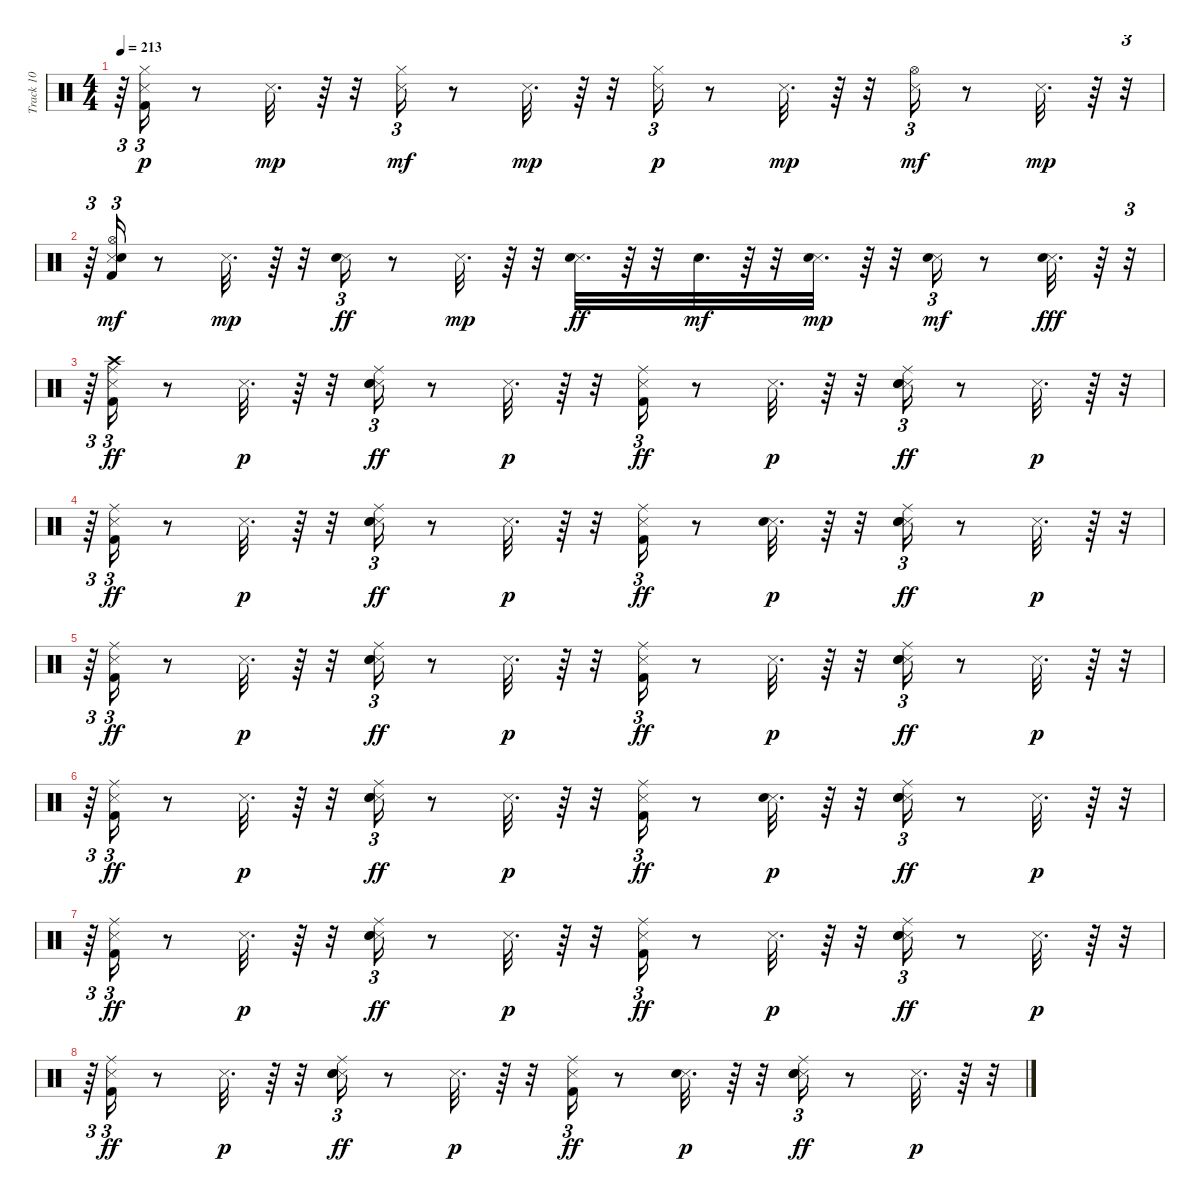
\track ("Track 10" "Track 10") {instrument percussion}
\staff {score}
\articulation defaults
\ts (4 4)
\tempo 213
\clef neutral
\ks c
r.64{tu (3 2) dy mp} ("Kick (hit) 2" "Snare (side stick) 3" "Hi-Hat (closed)").16{tu (3 2) dy p} r.8 "Snare (side stick) 3".32{d dy mp} r.64 r.32 ("Snare (side stick) 3" "Hi-Hat (closed)").16{tu (3 2) dy mf} r.8 "Snare (side stick) 3".32{d dy mp} r.64 r.32 ("Snare (side stick) 3" "Hi-Hat (closed)").16{tu (3 2) dy p} r.8 "Snare (side stick) 3".32{d dy mp} r.64 r.32 ("Snare (side stick) 3" "Hi-Hat (open)").16{tu (3 2) dy mf} r.8 "Snare (side stick) 3".32{d dy mp} r.64 r.32{tu (3 2)} |
r.64{tu (3 2)} ("Kick (hit) 2" "Snare (side stick) 3" "Electric Snare (hit)" "Hi-Hat (open)").16{tu (3 2) dy mf} r.8 "Snare (side stick) 3".32{d dy mp} r.64 r.32 ("Snare (side stick) 3" "Electric Snare (hit)").16{tu (3 2) dy ff} r.8 "Snare (side stick) 3".32{d dy mp} r.64 r.32 ("Snare (side stick) 3" "Electric Snare (hit)").32{d dy ff} r.64 r.32 "Electric Snare (hit)".32{d dy mf} r.64 r.32 ("Snare (side stick) 3" "Electric Snare (hit)").32{d dy mp} r.64 r.32 ("Snare (side stick) 3" "Electric Snare (hit)").16{tu (3 2) dy mf} r.8 ("Snare (side stick) 3" "Electric Snare (hit)").32{d dy fff} r.64 r.32{tu (3 2)} |
r.64{tu (3 2)} ("Kick (hit) 2" "Snare (side stick) 3" "Crash high (hit)" "Ride (middle)").16{tu (3 2) dy ff} r.8 "Snare (side stick) 3".32{d dy p} r.64 r.32 ("Snare (side stick) 3" "Hand Clap (hit)" "Electric Snare (hit)" "Ride (middle)").16{tu (3 2) dy ff} r.8 "Snare (side stick) 3".32{d dy p} r.64 r.32 ("Kick (hit) 2" "Snare (side stick) 3" "Ride (middle)").16{tu (3 2) dy ff} r.8 "Snare (side stick) 3".32{d dy p} r.64 r.32 ("Snare (side stick) 3" "Hand Clap (hit)" "Electric Snare (hit)" "Ride (middle)").16{tu (3 2) dy ff} r.8 "Snare (side stick) 3".32{d dy p} r.64 r.32{tu (3 2)} |
r.64{tu (3 2)} ("Kick (hit) 2" "Snare (side stick) 3" "Ride (middle)").16{tu (3 2) dy ff} r.8 "Snare (side stick) 3".32{d dy p} r.64 r.32 ("Snare (side stick) 3" "Hand Clap (hit)" "Electric Snare (hit)" "Ride (middle)").16{tu (3 2) dy ff} r.8 "Snare (side stick) 3".32{d dy p} r.64 r.32 ("Kick (hit) 2" "Snare (side stick) 3" "Ride (middle)").16{tu (3 2) dy ff} r.8 ("Snare (side stick) 3" "Electric Snare (hit)").32{d dy p} r.64 r.32 ("Snare (side stick) 3" "Hand Clap (hit)" "Electric Snare (hit)" "Ride (middle)").16{tu (3 2) dy ff} r.8 "Snare (side stick) 3".32{d dy p} r.64 r.32{tu (3 2)} |
r.64{tu (3 2)} ("Kick (hit) 2" "Snare (side stick) 3" "Ride (middle)").16{tu (3 2) dy ff} r.8 "Snare (side stick) 3".32{d dy p} r.64 r.32 ("Snare (side stick) 3" "Hand Clap (hit)" "Electric Snare (hit)" "Ride (middle)").16{tu (3 2) dy ff} r.8 "Snare (side stick) 3".32{d dy p} r.64 r.32 ("Kick (hit) 2" "Snare (side stick) 3" "Ride (middle)").16{tu (3 2) dy ff} r.8 "Snare (side stick) 3".32{d dy p} r.64 r.32 ("Snare (side stick) 3" "Hand Clap (hit)" "Electric Snare (hit)" "Ride (middle)").16{tu (3 2) dy ff} r.8 "Snare (side stick) 3".32{d dy p} r.64 r.32{tu (3 2)} |
r.64{tu (3 2)} ("Kick (hit) 2" "Snare (side stick) 3" "Ride (middle)").16{tu (3 2) dy ff} r.8 "Snare (side stick) 3".32{d dy p} r.64 r.32 ("Snare (side stick) 3" "Hand Clap (hit)" "Electric Snare (hit)" "Ride (middle)").16{tu (3 2) dy ff} r.8 "Snare (side stick) 3".32{d dy p} r.64 r.32 ("Kick (hit) 2" "Snare (side stick) 3" "Ride (middle)").16{tu (3 2) dy ff} r.8 ("Snare (side stick) 3" "Electric Snare (hit)").32{d dy p} r.64 r.32 ("Snare (side stick) 3" "Hand Clap (hit)" "Electric Snare (hit)" "Ride (middle)").16{tu (3 2) dy ff} r.8 "Snare (side stick) 3".32{d dy p} r.64 r.32{tu (3 2)} |
r.64{tu (3 2)} ("Kick (hit) 2" "Snare (side stick) 3" "Ride (middle)").16{tu (3 2) dy ff} r.8 "Snare (side stick) 3".32{d dy p} r.64 r.32 ("Snare (side stick) 3" "Hand Clap (hit)" "Electric Snare (hit)" "Ride (middle)").16{tu (3 2) dy ff} r.8 "Snare (side stick) 3".32{d dy p} r.64 r.32 ("Kick (hit) 2" "Snare (side stick) 3" "Ride (middle)").16{tu (3 2) dy ff} r.8 "Snare (side stick) 3".32{d dy p} r.64 r.32 ("Snare (side stick) 3" "Hand Clap (hit)" "Electric Snare (hit)" "Ride (middle)").16{tu (3 2) dy ff} r.8 "Snare (side stick) 3".32{d dy p} r.64 r.32{tu (3 2)} |
r.64{tu (3 2)} ("Kick (hit) 2" "Snare (side stick) 3" "Ride (middle)").16{tu (3 2) dy ff} r.8 "Snare (side stick) 3".32{d dy p} r.64 r.32 ("Snare (side stick) 3" "Hand Clap (hit)" "Electric Snare (hit)" "Ride (middle)").16{tu (3 2) dy ff} r.8 "Snare (side stick) 3".32{d dy p} r.64 r.32 ("Kick (hit) 2" "Snare (side stick) 3" "Ride (middle)").16{tu (3 2) dy ff} r.8 ("Snare (side stick) 3" "Electric Snare (hit)").32{d dy p} r.64 r.32 ("Snare (side stick) 3" "Hand Clap (hit)" "Electric Snare (hit)" "Ride (middle)").16{tu (3 2) dy ff} r.8 "Snare (side stick) 3".32{d dy p} r.64 r.32{tu (3 2)}
